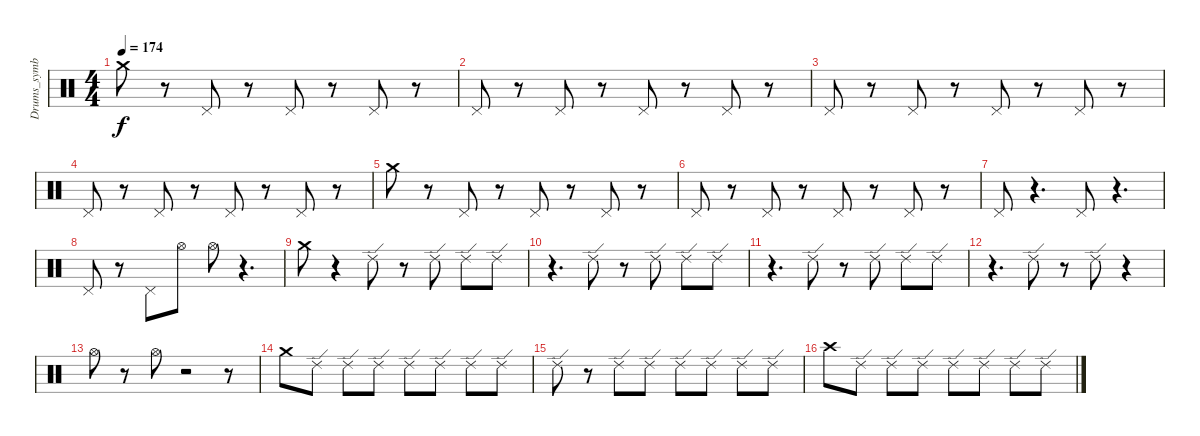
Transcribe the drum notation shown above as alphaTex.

\track ("Drums_symbal" "Drums_symb") {instrument percussion}
\staff {score}
\articulation defaults
\ts (4 4)
\tempo 174
\clef neutral
\ks c "Crash medium (hit)".8{dy f}
r.8 "Pedal Hi-Hat (hit)".8 r.8 "Pedal Hi-Hat (hit)".8 r.8 "Pedal Hi-Hat (hit)".8 r.8 |
"Pedal Hi-Hat (hit)".8 r.8 "Pedal Hi-Hat (hit)".8 r.8 "Pedal Hi-Hat (hit)".8 r.8 "Pedal Hi-Hat (hit)".8 r.8 |
"Pedal Hi-Hat (hit)".8 r.8 "Pedal Hi-Hat (hit)".8 r.8 "Pedal Hi-Hat (hit)".8 r.8 "Pedal Hi-Hat (hit)".8 r.8 |
"Pedal Hi-Hat (hit)".8 r.8 "Pedal Hi-Hat (hit)".8 r.8 "Pedal Hi-Hat (hit)".8 r.8 "Pedal Hi-Hat (hit)".8 r.8 |
"Crash medium (hit)".8 r.8 "Pedal Hi-Hat (hit)".8 r.8 "Pedal Hi-Hat (hit)".8 r.8 "Pedal Hi-Hat (hit)".8 r.8 |
"Pedal Hi-Hat (hit)".8 r.8 "Pedal Hi-Hat (hit)".8 r.8 "Pedal Hi-Hat (hit)".8 r.8 "Pedal Hi-Hat (hit)".8 r.8 |
"Pedal Hi-Hat (hit)".8 r.4{d} "Pedal Hi-Hat (hit)".8 r.4{d} |
"Pedal Hi-Hat (hit)".8 r.8 "Pedal Hi-Hat (hit)".8 "Hi-Hat (open)".8 "Hi-Hat (open)".8 r.4{d} |
"Crash medium (hit)".8 r.4 "Ride (edge) 2".8 r.8 "Ride (edge) 2".8 "Ride (edge) 2".8 "Ride (edge) 2".8 |
r.4{d} "Ride (edge) 2".8 r.8 "Ride (edge) 2".8 "Ride (edge) 2".8 "Ride (edge) 2".8 |
r.4{d} "Ride (edge) 2".8 r.8 "Ride (edge) 2".8 "Ride (edge) 2".8 "Ride (edge) 2".8 |
r.4{d} "Ride (edge) 2".8 r.8 "Ride (edge) 2".8 r.4 |
"Hi-Hat (open)".8 r.8 "Hi-Hat (open)".8 r.2 r.8 |
"Crash medium (hit)".8 "Ride (edge) 2".8 "Ride (edge) 2".8 "Ride (edge) 2".8 "Ride (edge) 2".8 "Ride (edge) 2".8 "Ride (edge) 2".8 "Ride (edge) 2".8 |
"Ride (edge) 2".8 r.8 "Ride (edge) 2".8 "Ride (edge) 2".8 "Ride (edge) 2".8 "Ride (edge) 2".8 "Ride (edge) 2".8 "Ride (edge) 2".8 |
"Crash high (hit)".8 "Ride (edge) 2".8 "Ride (edge) 2".8 "Ride (edge) 2".8 "Ride (edge) 2".8 "Ride (edge) 2".8 "Ride (edge) 2".8 "Ride (edge) 2".8
